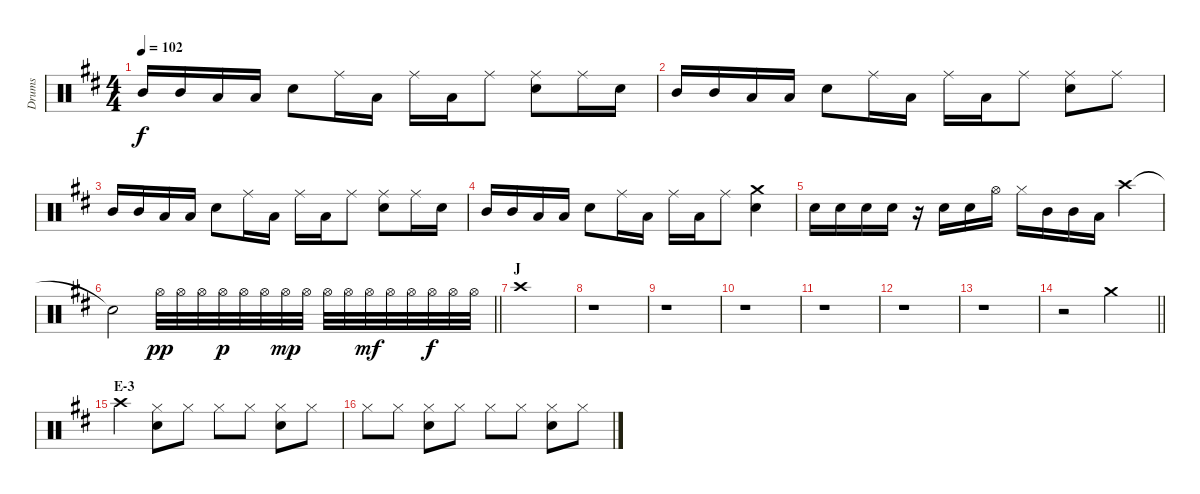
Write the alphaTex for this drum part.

\track ("Drums" "Drums") {instrument percussion}
\staff {score}
\articulation defaults
\ts (4 4)
\tempo 102
\clef neutral
\ks d "Mid Tom (hit)".16{dy f} "Mid Tom (hit)".16 "Low Tom (hit)".16 "Low Tom (hit)".16 "Snare (hit) 2".8 "Ride (middle)".16 "Low Tom (hit)".16 "Ride (middle)".16 "Low Tom (hit)".16 "Ride (middle)".8
("Ride (middle)" "Snare (hit) 2").8 "Ride (middle)".16 "Snare (hit) 2".16 |
"Mid Tom (hit)".16 "Mid Tom (hit)".16 "Low Tom (hit)".16 "Low Tom (hit)".16 "Snare (hit) 2".8 "Ride (middle)".16 "Low Tom (hit)".16 "Ride (middle)".16 "Low Tom (hit)".16 "Ride (middle)".8 ("Ride (middle)" "Snare (hit) 2").8 "Ride (middle)".8 |
"Mid Tom (hit)".16 "Mid Tom (hit)".16 "Low Tom (hit)".16 "Low Tom (hit)".16 "Snare (hit) 2".8 "Ride (middle)".16 "Low Tom (hit)".16 "Ride (middle)".16 "Low Tom (hit)".16 "Ride (middle)".8 ("Ride (middle)" "Snare (hit) 2").8 "Ride (middle)".16 "Snare (hit) 2".16 |
"Mid Tom (hit)".16 "Mid Tom (hit)".16 "Low Tom (hit)".16 "Low Tom (hit)".16 "Snare (hit) 2".8 "Ride (middle)".16 "Low Tom (hit)".16 "Ride (middle)".16 "Low Tom (hit)".16 "Ride (middle)".8 ("Crash medium (hit)" "Snare (hit) 2").4 |
"Snare (hit) 2".16 "Snare (hit) 2".16 "Snare (hit) 2".16 "Snare (hit) 2".16 r.16 "Snare (hit) 2".16 "Snare (hit) 2".16 "Hi-Hat (open)".16 "Hi-Hat (closed)".16 "Mid Tom (hit)".16 "Mid Tom (hit)".16 "Low Tom (hit)".16 "Crash high (hit)".4 |
\barLineRight lightlight "Snare (hit)"{t}.2 "Hi-Hat (open)".32{dy pp} "Hi-Hat (open)".32 "Hi-Hat (open)".32 "Hi-Hat (open)".32{dy p} "Hi-Hat (open)".32 "Hi-Hat (open)".32 "Hi-Hat (open)".32{dy mp} "Hi-Hat (open)".32 "Hi-Hat (open)".32 "Hi-Hat (open)".32 "Hi-Hat (open)".32{dy mf} "Hi-Hat (open)".32 "Hi-Hat (open)".32 "Hi-Hat (open)".32{dy f} "Hi-Hat (open)".32 "Hi-Hat (open)".32
|
\section ("" "J")
"Crash high (hit)".1 |
r.1 |
r.1 |
r.1 |
r.1 |
r.1 |
r.1 |
\barLineRight lightlight
r.2 "Crash medium (hit)".2 |
\section ("" "E-3")
"Crash high (hit)".4 ("Hi-Hat (closed)" "Snare (hit) 2").8 "Hi-Hat (closed)".8 "Hi-Hat (closed)".8 "Hi-Hat (closed)".8 ("Hi-Hat (closed)" "Snare (hit) 2").8 "Hi-Hat (closed)".8 |
"Hi-Hat (closed)".8 "Hi-Hat (closed)".8 ("Hi-Hat (closed)" "Snare (hit) 2").8 "Hi-Hat (closed)".8 "Hi-Hat (closed)".8 "Hi-Hat (closed)".8 ("Hi-Hat (closed)" "Snare (hit) 2").8 "Hi-Hat (closed)".8
